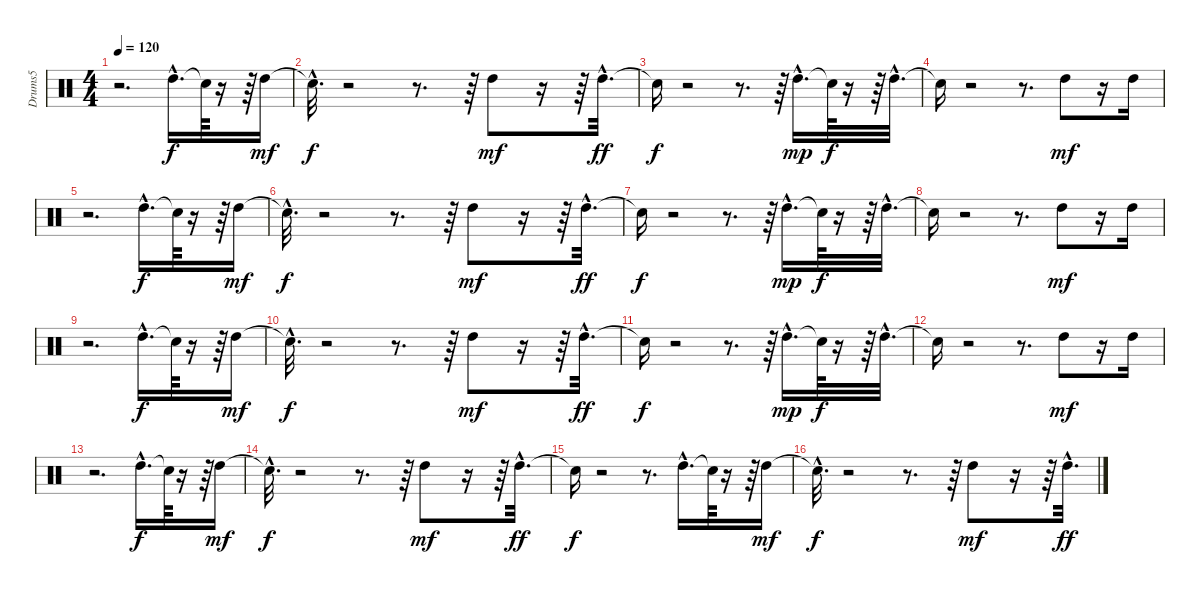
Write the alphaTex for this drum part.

\track ("Drums5" "Drums5") {instrument percussion}
\staff {score}
\articulation defaults
\ts (4 4)
\tempo 120
\clef neutral
\ks c
r.2{d dy mf} "High Tom (hit)"{hac}.16{d dy f} "Snare (hit)"{t}.64 r.16 r.64 "High Tom (hit)".16{dy mf} |
"Snare (hit)"{hac t}.32{d dy f} r.2 r.8{d} r.64 "High Tom (hit)".8{dy mf} r.16 r.64 "High Tom (hit)"{hac}.32{d dy ff} |
"Snare (hit)"{t}.16{dy f} r.2 r.8{d} r.64 "High Tom (hit)"{hac}.16{d dy mp} "Snare (hit)"{t}.64{dy f} r.16 r.64 "High Tom (hit)"{hac}.32{d} |
"Snare (hit)"{t}.16 r.2 r.8{d} "High Tom (hit)".8{dy mf} r.16 "High Tom (hit)".16 |
r.2{d} "High Tom (hit)"{hac}.16{d dy f} "Snare (hit)"{t}.64 r.16 r.64 "High Tom (hit)".16{dy mf} |
"Snare (hit)"{hac t}.32{d dy f} r.2 r.8{d} r.64 "High Tom (hit)".8{dy mf} r.16 r.64 "High Tom (hit)"{hac}.32{d dy ff} |
"Snare (hit)"{t}.16{dy f} r.2 r.8{d} r.64 "High Tom (hit)"{hac}.16{d dy mp} "Snare (hit)"{t}.64{dy f} r.16 r.64 "High Tom (hit)"{hac}.32{d} |
"Snare (hit)"{t}.16 r.2 r.8{d} "High Tom (hit)".8{dy mf} r.16 "High Tom (hit)".16 |
r.2{d} "High Tom (hit)"{hac}.16{d dy f} "Snare (hit)"{t}.64 r.16 r.64 "High Tom (hit)".16{dy mf} |
"Snare (hit)"{hac t}.32{d dy f} r.2 r.8{d} r.64 "High Tom (hit)".8{dy mf} r.16 r.64 "High Tom (hit)"{hac}.32{d dy ff} |
"Snare (hit)"{t}.16{dy f} r.2 r.8{d} r.64 "High Tom (hit)"{hac}.16{d dy mp} "Snare (hit)"{t}.64{dy f} r.16 r.64 "High Tom (hit)"{hac}.32{d} |
"Snare (hit)"{t}.16 r.2 r.8{d} "High Tom (hit)".8{dy mf} r.16 "High Tom (hit)".16 |
r.2{d} "High Tom (hit)"{hac}.16{d dy f} "Snare (hit)"{t}.64 r.16 r.64 "High Tom (hit)".16{dy mf} |
"Snare (hit)"{hac t}.32{d dy f} r.2 r.8{d} r.64 "High Tom (hit)".8{dy mf} r.16 r.64 "High Tom (hit)"{hac}.32{d dy ff} |
"Snare (hit)"{t}.16{dy f} r.2 r.8{d} "High Tom (hit)"{hac}.16{d} "Snare (hit)"{t}.64 r.16 r.64 "High Tom (hit)".16{dy mf} |
"Snare (hit)"{hac t}.32{d dy f} r.2 r.8{d} r.64 "High Tom (hit)".8{dy mf} r.16 r.64 "High Tom (hit)"{hac}.32{d dy ff}
